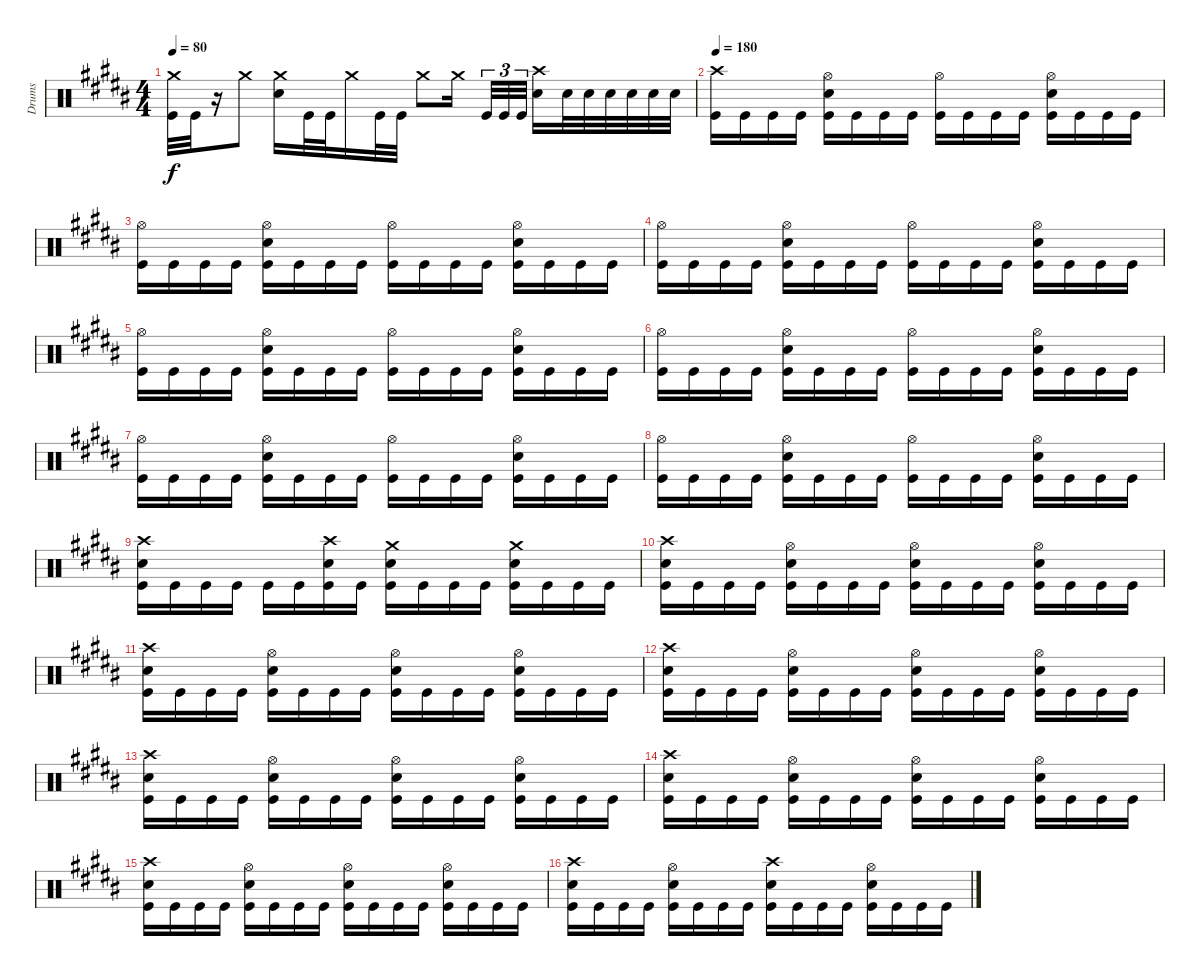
\track ("Drums" "Drums") {instrument percussion}
\staff {score}
\articulation defaults
\ts (4 4)
\tempo 80
\clef neutral
\ks g#minor
("Crash medium (hit)" "Kick (hit)").32{dy f} "Kick (hit)".32 r.16 "Crash medium (hit)".8 ("Crash medium (hit)" "Snare (hit) 2").16 "Kick (hit)".32 "Kick (hit)".32 "Crash medium (hit)".16 "Kick (hit)".32 "Kick (hit)".32 "Crash medium (hit)".8 "Crash medium (hit)".16{beam splitsecondary} "Kick (hit)".32{tu (3 2)} "Kick (hit)".32{tu (3 2)} "Kick (hit)".32{tu (3 2)} ("Crash high (hit)" "Snare (hit) 2").16 "Snare (hit) 2".32 "Snare (hit) 2".32 "Snare (hit) 2".32 "Snare (hit) 2".32 "Snare (hit) 2".32 "Snare (hit) 2".32 |
\tempo 180
\ks b
("Crash high (hit)" "Kick (hit)").16 "Kick (hit)".16 "Kick (hit)".16 "Kick (hit)".16 ("Kick (hit)" "Hi-Hat (open)" "Snare (hit) 2").16 "Kick (hit)".16 "Kick (hit)".16 "Kick (hit)".16 ("Kick (hit)" "Hi-Hat (open)").16 "Kick (hit)".16 "Kick (hit)".16 "Kick (hit)".16 ("Kick (hit)" "Hi-Hat (open)" "Snare (hit) 2").16 "Kick (hit)".16 "Kick (hit)".16 "Kick (hit)".16 |
\ks g#minor
("Hi-Hat (open)" "Kick (hit)").16 "Kick (hit)".16 "Kick (hit)".16 "Kick (hit)".16 ("Kick (hit)" "Hi-Hat (open)" "Snare (hit) 2").16 "Kick (hit)".16 "Kick (hit)".16 "Kick (hit)".16 ("Kick (hit)" "Hi-Hat (open)").16 "Kick (hit)".16 "Kick (hit)".16 "Kick (hit)".16 ("Kick (hit)" "Hi-Hat (open)" "Snare (hit) 2").16 "Kick (hit)".16 "Kick (hit)".16 "Kick (hit)".16 |
("Hi-Hat (open)" "Kick (hit)").16 "Kick (hit)".16 "Kick (hit)".16 "Kick (hit)".16 ("Kick (hit)" "Hi-Hat (open)" "Snare (hit) 2").16 "Kick (hit)".16 "Kick (hit)".16 "Kick (hit)".16 ("Kick (hit)" "Hi-Hat (open)").16 "Kick (hit)".16 "Kick (hit)".16 "Kick (hit)".16 ("Kick (hit)" "Hi-Hat (open)" "Snare (hit) 2").16 "Kick (hit)".16 "Kick (hit)".16 "Kick (hit)".16 |
("Hi-Hat (open)" "Kick (hit)").16 "Kick (hit)".16 "Kick (hit)".16 "Kick (hit)".16 ("Kick (hit)" "Hi-Hat (open)" "Snare (hit) 2").16 "Kick (hit)".16 "Kick (hit)".16 "Kick (hit)".16 ("Kick (hit)" "Hi-Hat (open)").16 "Kick (hit)".16 "Kick (hit)".16 "Kick (hit)".16 ("Kick (hit)" "Hi-Hat (open)" "Snare (hit) 2").16 "Kick (hit)".16 "Kick (hit)".16 "Kick (hit)".16 |
\ks b
("Hi-Hat (open)" "Kick (hit)").16 "Kick (hit)".16 "Kick (hit)".16 "Kick (hit)".16 ("Kick (hit)" "Hi-Hat (open)" "Snare (hit) 2").16 "Kick (hit)".16 "Kick (hit)".16 "Kick (hit)".16 ("Kick (hit)" "Hi-Hat (open)").16 "Kick (hit)".16 "Kick (hit)".16 "Kick (hit)".16 ("Kick (hit)" "Hi-Hat (open)" "Snare (hit) 2").16 "Kick (hit)".16 "Kick (hit)".16 "Kick (hit)".16 |
\ks g#minor
("Hi-Hat (open)" "Kick (hit)").16 "Kick (hit)".16 "Kick (hit)".16 "Kick (hit)".16 ("Kick (hit)" "Hi-Hat (open)" "Snare (hit) 2").16 "Kick (hit)".16 "Kick (hit)".16 "Kick (hit)".16 ("Kick (hit)" "Hi-Hat (open)").16 "Kick (hit)".16 "Kick (hit)".16 "Kick (hit)".16 ("Kick (hit)" "Hi-Hat (open)" "Snare (hit) 2").16 "Kick (hit)".16 "Kick (hit)".16 "Kick (hit)".16 |
("Hi-Hat (open)" "Kick (hit)").16 "Kick (hit)".16 "Kick (hit)".16 "Kick (hit)".16 ("Kick (hit)" "Hi-Hat (open)" "Snare (hit) 2").16 "Kick (hit)".16 "Kick (hit)".16 "Kick (hit)".16 ("Kick (hit)" "Hi-Hat (open)").16 "Kick (hit)".16 "Kick (hit)".16 "Kick (hit)".16 ("Kick (hit)" "Hi-Hat (open)" "Snare (hit) 2").16 "Kick (hit)".16 "Kick (hit)".16 "Kick (hit)".16 |
("Snare (hit) 2" "Kick (hit)" "Crash high (hit)").16 "Kick (hit)".16 "Kick (hit)".16 "Kick (hit)".16 "Kick (hit)".16 "Kick (hit)".16 ("Snare (hit) 2" "Kick (hit)" "Crash high (hit)").16 "Kick (hit)".16 ("Kick (hit)" "Crash medium (hit)" "Snare (hit) 2").16 "Kick (hit)".16 "Kick (hit)".16 "Kick (hit)".16 ("Kick (hit)" "Crash medium (hit)" "Snare (hit) 2").16 "Kick (hit)".16 "Kick (hit)".16 "Kick (hit)".16 |
\ks b
("Crash high (hit)" "Kick (hit)" "Snare (hit) 2").16 "Kick (hit)".16 "Kick (hit)".16 "Kick (hit)".16 ("Kick (hit)" "Hi-Hat (open)" "Snare (hit) 2").16 "Kick (hit)".16 "Kick (hit)".16 "Kick (hit)".16 ("Kick (hit)" "Hi-Hat (open)" "Snare (hit) 2").16 "Kick (hit)".16 "Kick (hit)".16 "Kick (hit)".16 ("Kick (hit)" "Hi-Hat (open)" "Snare (hit) 2").16 "Kick (hit)".16 "Kick (hit)".16 "Kick (hit)".16 |
\ks g#minor
("Crash high (hit)" "Kick (hit)" "Snare (hit) 2").16 "Kick (hit)".16 "Kick (hit)".16 "Kick (hit)".16 ("Kick (hit)" "Hi-Hat (open)" "Snare (hit) 2").16 "Kick (hit)".16 "Kick (hit)".16 "Kick (hit)".16 ("Kick (hit)" "Hi-Hat (open)" "Snare (hit) 2").16 "Kick (hit)".16 "Kick (hit)".16 "Kick (hit)".16 ("Kick (hit)" "Hi-Hat (open)" "Snare (hit) 2").16 "Kick (hit)".16 "Kick (hit)".16 "Kick (hit)".16 |
\ks b
("Crash high (hit)" "Kick (hit)" "Snare (hit) 2").16 "Kick (hit)".16 "Kick (hit)".16 "Kick (hit)".16 ("Kick (hit)" "Hi-Hat (open)" "Snare (hit) 2").16 "Kick (hit)".16 "Kick (hit)".16 "Kick (hit)".16 ("Kick (hit)" "Hi-Hat (open)" "Snare (hit) 2").16 "Kick (hit)".16 "Kick (hit)".16 "Kick (hit)".16 ("Kick (hit)" "Hi-Hat (open)" "Snare (hit) 2").16 "Kick (hit)".16 "Kick (hit)".16 "Kick (hit)".16 |
\ks g#minor
("Crash high (hit)" "Kick (hit)" "Snare (hit) 2").16 "Kick (hit)".16 "Kick (hit)".16 "Kick (hit)".16 ("Kick (hit)" "Hi-Hat (open)" "Snare (hit) 2").16 "Kick (hit)".16 "Kick (hit)".16 "Kick (hit)".16 ("Kick (hit)" "Hi-Hat (open)" "Snare (hit) 2").16 "Kick (hit)".16 "Kick (hit)".16 "Kick (hit)".16 ("Kick (hit)" "Hi-Hat (open)" "Snare (hit) 2").16 "Kick (hit)".16 "Kick (hit)".16 "Kick (hit)".16 |
\ks b
("Crash high (hit)" "Kick (hit)" "Snare (hit) 2").16 "Kick (hit)".16 "Kick (hit)".16 "Kick (hit)".16 ("Kick (hit)" "Hi-Hat (open)" "Snare (hit) 2").16 "Kick (hit)".16 "Kick (hit)".16 "Kick (hit)".16 ("Kick (hit)" "Hi-Hat (open)" "Snare (hit) 2").16 "Kick (hit)".16 "Kick (hit)".16 "Kick (hit)".16 ("Kick (hit)" "Hi-Hat (open)" "Snare (hit) 2").16 "Kick (hit)".16 "Kick (hit)".16 "Kick (hit)".16 |
\ks g#minor
("Crash high (hit)" "Kick (hit)" "Snare (hit) 2").16 "Kick (hit)".16 "Kick (hit)".16 "Kick (hit)".16 ("Kick (hit)" "Hi-Hat (open)" "Snare (hit) 2").16 "Kick (hit)".16 "Kick (hit)".16 "Kick (hit)".16 ("Kick (hit)" "Hi-Hat (open)" "Snare (hit) 2").16 "Kick (hit)".16 "Kick (hit)".16 "Kick (hit)".16 ("Kick (hit)" "Hi-Hat (open)" "Snare (hit) 2").16 "Kick (hit)".16 "Kick (hit)".16 "Kick (hit)".16 |
("Crash high (hit)" "Kick (hit)" "Snare (hit) 2").16 "Kick (hit)".16 "Kick (hit)".16 "Kick (hit)".16 ("Kick (hit)" "Hi-Hat (open)" "Snare (hit) 2").16 "Kick (hit)".16 "Kick (hit)".16 "Kick (hit)".16 ("Kick (hit)" "Crash high (hit)" "Snare (hit) 2").16 "Kick (hit)".16 "Kick (hit)".16 "Kick (hit)".16 ("Kick (hit)" "Hi-Hat (open)" "Snare (hit) 2").16 "Kick (hit)".16 "Kick (hit)".16 "Kick (hit)".16
